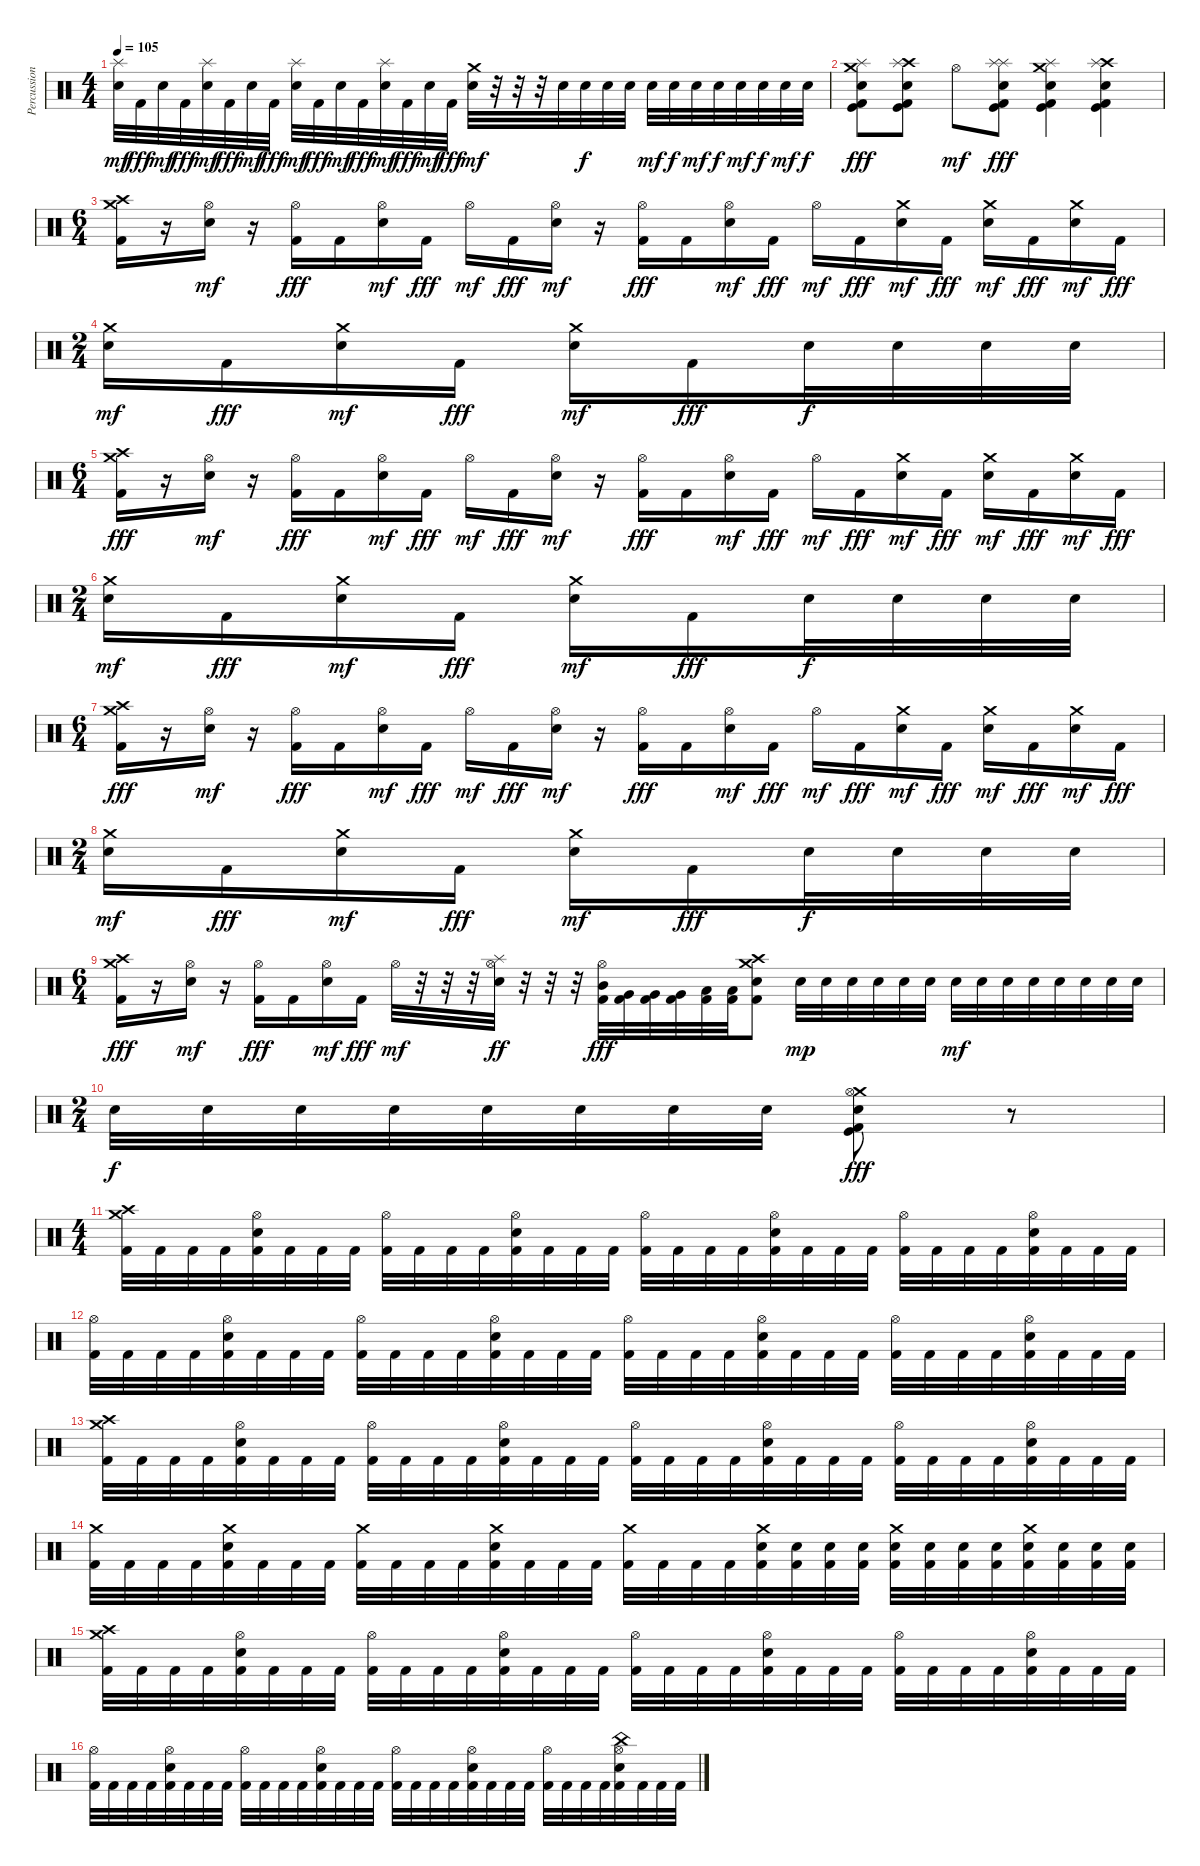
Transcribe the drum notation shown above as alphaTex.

\track ("Percussions" "Percussion") {instrument percussion}
\staff {score}
\articulation defaults
\ts (4 4)
\tempo 105
\clef neutral
\ks c
("Splash (hit)" "Electric Snare (hit)").32{dy mf} "Kick (hit) 2".32{dy fff} "Electric Snare (hit)".32{dy mf} "Kick (hit) 2".32{dy fff} ("Splash (hit)" "Electric Snare (hit)").32{dy mf} "Kick (hit) 2".32{dy fff} "Electric Snare (hit)".32{dy mf} "Kick (hit) 2".32{dy fff} ("Splash (hit)" "Electric Snare (hit)").32{dy mf} "Kick (hit) 2".32{dy fff} "Electric Snare (hit)".32{dy mf} "Kick (hit) 2".32{dy fff} ("Splash (hit)" "Electric Snare (hit)").32{dy mf} "Kick (hit) 2".32{dy fff} "Electric Snare (hit)".32{dy mf} "Kick (hit) 2".32{dy fff} ("Crash medium (hit)" "Electric Snare (hit)").32{dy mf} r.32 r.32 r.32 "Electric Snare (hit)".32 "Electric Snare (hit)".32{dy f} "Electric Snare (hit)".32 "Electric Snare (hit)".32 "Electric Snare (hit)".32{dy mf} "Electric Snare (hit)".32{dy f} "Electric Snare (hit)".32{dy mf} "Electric Snare (hit)".32{dy f} "Electric Snare (hit)".32{dy mf} "Electric Snare (hit)".32{dy f} "Electric Snare (hit)".32{dy mf} "Electric Snare (hit)".32{dy f} |
("Crash medium (hit)" "Splash (hit)" "Snare (hit) 2" "Kick (hit)" "Kick (hit) 2").8{dy fff} ("Crash high (hit)" "Splash (hit)" "Snare (hit) 2" "Kick (hit)" "Kick (hit) 2").8 "Hi-Hat (open)".8{dy mf} ("Splash (hit)" "Splash (hit)" "Electric Snare (hit)" "Kick (hit)" "Kick (hit) 2").8{dy fff} ("Crash medium (hit)" "Splash (hit)" "Electric Snare (hit)" "Kick (hit)" "Kick (hit) 2").4 ("Crash high (hit)" "Splash (hit)" "Electric Snare (hit)" "Kick (hit)" "Kick (hit) 2").4 |
\ts (6 4)
("Crash medium (hit)" "Crash high (hit)" "Kick (hit) 2").16 r.16 ("Hi-Hat (open)" "Electric Snare (hit)").16{dy mf} r.16 ("Hi-Hat (open)" "Kick (hit) 2").16{dy fff} "Kick (hit) 2".16 ("Hi-Hat (open)" "Electric Snare (hit)").16{dy mf} "Kick (hit) 2".16{dy fff} "Hi-Hat (open)".16{dy mf} "Kick (hit) 2".16{dy fff} ("Hi-Hat (open)" "Electric Snare (hit)").16{dy mf} r.16 ("Hi-Hat (open)" "Kick (hit) 2").16{dy fff} "Kick (hit) 2".16 ("Hi-Hat (open)" "Electric Snare (hit)").16{dy mf} "Kick (hit) 2".16{dy fff} "Hi-Hat (open)".16{dy mf} "Kick (hit) 2".16{dy fff} ("Crash medium (hit)" "Electric Snare (hit)").16{dy mf} "Kick (hit) 2".16{dy fff} ("Crash medium (hit)" "Electric Snare (hit)").16{dy mf} "Kick (hit) 2".16{dy fff} ("Crash medium (hit)" "Electric Snare (hit)").16{dy mf} "Kick (hit) 2".16{dy fff} |
\ts (2 4)
("Crash medium (hit)" "Electric Snare (hit)").16{dy mf} "Kick (hit) 2".16{dy fff} ("Crash medium (hit)" "Electric Snare (hit)").16{dy mf} "Kick (hit) 2".16{dy fff} ("Crash medium (hit)" "Electric Snare (hit)").16{dy mf} "Kick (hit) 2".16{dy fff} "Electric Snare (hit)".32{dy f} "Electric Snare (hit)".32 "Electric Snare (hit)".32 "Electric Snare (hit)".32 |
\ts (6 4)
("Crash medium (hit)" "Crash high (hit)" "Kick (hit) 2").16{dy fff} r.16 ("Hi-Hat (open)" "Electric Snare (hit)").16{dy mf} r.16 ("Hi-Hat (open)" "Kick (hit) 2").16{dy fff} "Kick (hit) 2".16 ("Hi-Hat (open)" "Electric Snare (hit)").16{dy mf} "Kick (hit) 2".16{dy fff} "Hi-Hat (open)".16{dy mf} "Kick (hit) 2".16{dy fff} ("Hi-Hat (open)" "Electric Snare (hit)").16{dy mf} r.16 ("Hi-Hat (open)" "Kick (hit) 2").16{dy fff} "Kick (hit) 2".16 ("Hi-Hat (open)" "Electric Snare (hit)").16{dy mf} "Kick (hit) 2".16{dy fff} "Hi-Hat (open)".16{dy mf} "Kick (hit) 2".16{dy fff} ("Crash medium (hit)" "Electric Snare (hit)").16{dy mf} "Kick (hit) 2".16{dy fff} ("Crash medium (hit)" "Electric Snare (hit)").16{dy mf} "Kick (hit) 2".16{dy fff} ("Crash medium (hit)" "Electric Snare (hit)").16{dy mf} "Kick (hit) 2".16{dy fff} |
\ts (2 4)
("Crash medium (hit)" "Electric Snare (hit)").16{dy mf} "Kick (hit) 2".16{dy fff} ("Crash medium (hit)" "Electric Snare (hit)").16{dy mf} "Kick (hit) 2".16{dy fff} ("Crash medium (hit)" "Electric Snare (hit)").16{dy mf} "Kick (hit) 2".16{dy fff} "Electric Snare (hit)".32{dy f} "Electric Snare (hit)".32 "Electric Snare (hit)".32 "Electric Snare (hit)".32 |
\ts (6 4)
("Crash medium (hit)" "Crash high (hit)" "Kick (hit) 2").16{dy fff} r.16 ("Hi-Hat (open)" "Electric Snare (hit)").16{dy mf} r.16 ("Hi-Hat (open)" "Kick (hit) 2").16{dy fff} "Kick (hit) 2".16 ("Hi-Hat (open)" "Electric Snare (hit)").16{dy mf} "Kick (hit) 2".16{dy fff} "Hi-Hat (open)".16{dy mf} "Kick (hit) 2".16{dy fff} ("Hi-Hat (open)" "Electric Snare (hit)").16{dy mf} r.16 ("Hi-Hat (open)" "Kick (hit) 2").16{dy fff} "Kick (hit) 2".16 ("Hi-Hat (open)" "Electric Snare (hit)").16{dy mf} "Kick (hit) 2".16{dy fff} "Hi-Hat (open)".16{dy mf} "Kick (hit) 2".16{dy fff} ("Crash medium (hit)" "Electric Snare (hit)").16{dy mf} "Kick (hit) 2".16{dy fff} ("Crash medium (hit)" "Electric Snare (hit)").16{dy mf} "Kick (hit) 2".16{dy fff} ("Crash medium (hit)" "Electric Snare (hit)").16{dy mf} "Kick (hit) 2".16{dy fff} |
\ts (2 4)
("Crash medium (hit)" "Electric Snare (hit)").16{dy mf} "Kick (hit) 2".16{dy fff} ("Crash medium (hit)" "Electric Snare (hit)").16{dy mf} "Kick (hit) 2".16{dy fff} ("Crash medium (hit)" "Electric Snare (hit)").16{dy mf} "Kick (hit) 2".16{dy fff} "Electric Snare (hit)".32{dy f} "Electric Snare (hit)".32 "Electric Snare (hit)".32 "Electric Snare (hit)".32 |
\ts (6 4)
("Crash medium (hit)" "Crash high (hit)" "Kick (hit) 2").16{dy fff} r.16 ("Hi-Hat (open)" "Electric Snare (hit)").16{dy mf} r.16 ("Hi-Hat (open)" "Kick (hit) 2").16{dy fff} "Kick (hit) 2".16 ("Hi-Hat (open)" "Electric Snare (hit)").16{dy mf} "Kick (hit) 2".16{dy fff} "Hi-Hat (open)".32{dy mf} r.32 r.32 r.32 ("Hi-Hat (open)" "Splash (hit)" "Electric Snare (hit)").32{dy ff} r.32 r.32 r.32 ("Hi-Hat (open)" "Mid Tom (hit)" "Kick (hit) 2").32{dy fff} ("Very Low Tom (hit)" "Kick (hit) 2").32 ("Very Low Tom (hit)" "Kick (hit) 2").32 ("Very Low Tom (hit)" "Kick (hit) 2").32 ("Low Floor Tom (hit)" "Kick (hit) 2").32 ("Low Floor Tom (hit)" "Kick (hit) 2").32 ("Crash high (hit)" "Crash medium (hit)" "Electric Snare (hit)" "Kick (hit) 2").8 "Electric Snare (hit)".32{dy mp} "Electric Snare (hit)".32 "Electric Snare (hit)".32 "Electric Snare (hit)".32 "Electric Snare (hit)".32 "Electric Snare (hit)".32 "Electric Snare (hit)".32{dy mf} "Electric Snare (hit)".32 "Electric Snare (hit)".32 "Electric Snare (hit)".32 "Electric Snare (hit)".32 "Electric Snare (hit)".32 "Electric Snare (hit)".32 "Electric Snare (hit)".32 |
\ts (2 4)
"Electric Snare (hit)".32{dy f} "Electric Snare (hit)".32 "Electric Snare (hit)".32 "Electric Snare (hit)".32 "Electric Snare (hit)".32 "Electric Snare (hit)".32 "Electric Snare (hit)".32 "Electric Snare (hit)".32 ("Crash medium (hit)" "Hi-Hat (open)" "Electric Snare (hit)" "Kick (hit)" "Kick (hit) 2").8{dy fff} r.8 |
\ts (4 4)
("Crash high (hit)" "Crash medium (hit)" "Kick (hit) 2").32 "Kick (hit) 2".32 "Kick (hit) 2".32 "Kick (hit) 2".32 ("Hi-Hat (open)" "Electric Snare (hit)" "Kick (hit) 2").32 "Kick (hit) 2".32 "Kick (hit) 2".32 "Kick (hit) 2".32 ("Hi-Hat (open)" "Kick (hit) 2").32 "Kick (hit) 2".32 "Kick (hit) 2".32 "Kick (hit) 2".32 ("Hi-Hat (open)" "Electric Snare (hit)" "Kick (hit) 2").32 "Kick (hit) 2".32 "Kick (hit) 2".32 "Kick (hit) 2".32 ("Hi-Hat (open)" "Kick (hit) 2").32 "Kick (hit) 2".32 "Kick (hit) 2".32 "Kick (hit) 2".32 ("Hi-Hat (open)" "Electric Snare (hit)" "Kick (hit) 2").32 "Kick (hit) 2".32 "Kick (hit) 2".32 "Kick (hit) 2".32 ("Hi-Hat (open)" "Kick (hit) 2").32 "Kick (hit) 2".32 "Kick (hit) 2".32 "Kick (hit) 2".32 ("Hi-Hat (open)" "Electric Snare (hit)" "Kick (hit) 2").32 "Kick (hit) 2".32 "Kick (hit) 2".32 "Kick (hit) 2".32 |
("Hi-Hat (open)" "Kick (hit) 2").32 "Kick (hit) 2".32 "Kick (hit) 2".32 "Kick (hit) 2".32 ("Hi-Hat (open)" "Electric Snare (hit)" "Kick (hit) 2").32 "Kick (hit) 2".32 "Kick (hit) 2".32 "Kick (hit) 2".32 ("Hi-Hat (open)" "Kick (hit) 2").32 "Kick (hit) 2".32 "Kick (hit) 2".32 "Kick (hit) 2".32 ("Hi-Hat (open)" "Electric Snare (hit)" "Kick (hit) 2").32 "Kick (hit) 2".32 "Kick (hit) 2".32 "Kick (hit) 2".32 ("Hi-Hat (open)" "Kick (hit) 2").32 "Kick (hit) 2".32 "Kick (hit) 2".32 "Kick (hit) 2".32 ("Hi-Hat (open)" "Electric Snare (hit)" "Kick (hit) 2").32 "Kick (hit) 2".32 "Kick (hit) 2".32 "Kick (hit) 2".32 ("Hi-Hat (open)" "Kick (hit) 2").32 "Kick (hit) 2".32 "Kick (hit) 2".32 "Kick (hit) 2".32 ("Hi-Hat (open)" "Electric Snare (hit)" "Kick (hit) 2").32 "Kick (hit) 2".32 "Kick (hit) 2".32 "Kick (hit) 2".32 |
("Crash high (hit)" "Crash medium (hit)" "Kick (hit) 2").32 "Kick (hit) 2".32 "Kick (hit) 2".32 "Kick (hit) 2".32 ("Hi-Hat (open)" "Electric Snare (hit)" "Kick (hit) 2").32 "Kick (hit) 2".32 "Kick (hit) 2".32 "Kick (hit) 2".32 ("Hi-Hat (open)" "Kick (hit) 2").32 "Kick (hit) 2".32 "Kick (hit) 2".32 "Kick (hit) 2".32 ("Hi-Hat (open)" "Electric Snare (hit)" "Kick (hit) 2").32 "Kick (hit) 2".32 "Kick (hit) 2".32 "Kick (hit) 2".32 ("Hi-Hat (open)" "Kick (hit) 2").32 "Kick (hit) 2".32 "Kick (hit) 2".32 "Kick (hit) 2".32 ("Hi-Hat (open)" "Electric Snare (hit)" "Kick (hit) 2").32 "Kick (hit) 2".32 "Kick (hit) 2".32 "Kick (hit) 2".32 ("Hi-Hat (open)" "Kick (hit) 2").32 "Kick (hit) 2".32 "Kick (hit) 2".32 "Kick (hit) 2".32 ("Hi-Hat (open)" "Electric Snare (hit)" "Kick (hit) 2").32 "Kick (hit) 2".32 "Kick (hit) 2".32 "Kick (hit) 2".32 |
("Crash medium (hit)" "Kick (hit) 2").32 "Kick (hit) 2".32 "Kick (hit) 2".32 "Kick (hit) 2".32 ("Crash medium (hit)" "Electric Snare (hit)" "Kick (hit) 2").32 "Kick (hit) 2".32 "Kick (hit) 2".32 "Kick (hit) 2".32 ("Crash medium (hit)" "Kick (hit) 2").32 "Kick (hit) 2".32 "Kick (hit) 2".32 "Kick (hit) 2".32 ("Crash medium (hit)" "Electric Snare (hit)" "Kick (hit) 2").32 "Kick (hit) 2".32 "Kick (hit) 2".32 "Kick (hit) 2".32 ("Crash medium (hit)" "Kick (hit) 2").32 "Kick (hit) 2".32 "Kick (hit) 2".32 "Kick (hit) 2".32 ("Crash medium (hit)" "Electric Snare (hit)" "Kick (hit) 2").32 ("Electric Snare (hit)" "Kick (hit) 2").32 ("Electric Snare (hit)" "Kick (hit) 2").32 ("Electric Snare (hit)" "Kick (hit) 2").32 ("Crash medium (hit)" "Electric Snare (hit)" "Kick (hit) 2").32 ("Electric Snare (hit)" "Kick (hit) 2").32 ("Electric Snare (hit)" "Kick (hit) 2").32 ("Electric Snare (hit)" "Kick (hit) 2").32 ("Crash medium (hit)" "Electric Snare (hit)" "Kick (hit) 2").32 ("Electric Snare (hit)" "Kick (hit) 2").32 ("Electric Snare (hit)" "Kick (hit) 2").32 ("Electric Snare (hit)" "Kick (hit) 2").32 |
("Crash high (hit)" "Crash medium (hit)" "Kick (hit) 2").32 "Kick (hit) 2".32 "Kick (hit) 2".32 "Kick (hit) 2".32 ("Hi-Hat (open)" "Electric Snare (hit)" "Kick (hit) 2").32 "Kick (hit) 2".32 "Kick (hit) 2".32 "Kick (hit) 2".32 ("Hi-Hat (open)" "Kick (hit) 2").32 "Kick (hit) 2".32 "Kick (hit) 2".32 "Kick (hit) 2".32 ("Hi-Hat (open)" "Electric Snare (hit)" "Kick (hit) 2").32 "Kick (hit) 2".32 "Kick (hit) 2".32 "Kick (hit) 2".32 ("Hi-Hat (open)" "Kick (hit) 2").32 "Kick (hit) 2".32 "Kick (hit) 2".32 "Kick (hit) 2".32 ("Hi-Hat (open)" "Electric Snare (hit)" "Kick (hit) 2").32 "Kick (hit) 2".32 "Kick (hit) 2".32 "Kick (hit) 2".32 ("Hi-Hat (open)" "Kick (hit) 2").32 "Kick (hit) 2".32 "Kick (hit) 2".32 "Kick (hit) 2".32 ("Hi-Hat (open)" "Electric Snare (hit)" "Kick (hit) 2").32 "Kick (hit) 2".32 "Kick (hit) 2".32 "Kick (hit) 2".32 |
("Hi-Hat (open)" "Kick (hit) 2").32 "Kick (hit) 2".32 "Kick (hit) 2".32 "Kick (hit) 2".32 ("Hi-Hat (open)" "Electric Snare (hit)" "Kick (hit) 2").32 "Kick (hit) 2".32 "Kick (hit) 2".32 "Kick (hit) 2".32 ("Hi-Hat (open)" "Kick (hit) 2").32 "Kick (hit) 2".32 "Kick (hit) 2".32 "Kick (hit) 2".32 ("Hi-Hat (open)" "Electric Snare (hit)" "Kick (hit) 2").32 "Kick (hit) 2".32 "Kick (hit) 2".32 "Kick (hit) 2".32 ("Hi-Hat (open)" "Kick (hit) 2").32 "Kick (hit) 2".32 "Kick (hit) 2".32 "Kick (hit) 2".32 ("Hi-Hat (open)" "Electric Snare (hit)" "Kick (hit) 2").32 "Kick (hit) 2".32 "Kick (hit) 2".32 "Kick (hit) 2".32 ("Hi-Hat (open)" "Kick (hit) 2").32 "Kick (hit) 2".32 "Kick (hit) 2".32 "Kick (hit) 2".32 ("China (hit)" "Hi-Hat (open)" "Electric Snare (hit)" "Kick (hit) 2").32 "Kick (hit) 2".32 "Kick (hit) 2".32 "Kick (hit) 2".32
